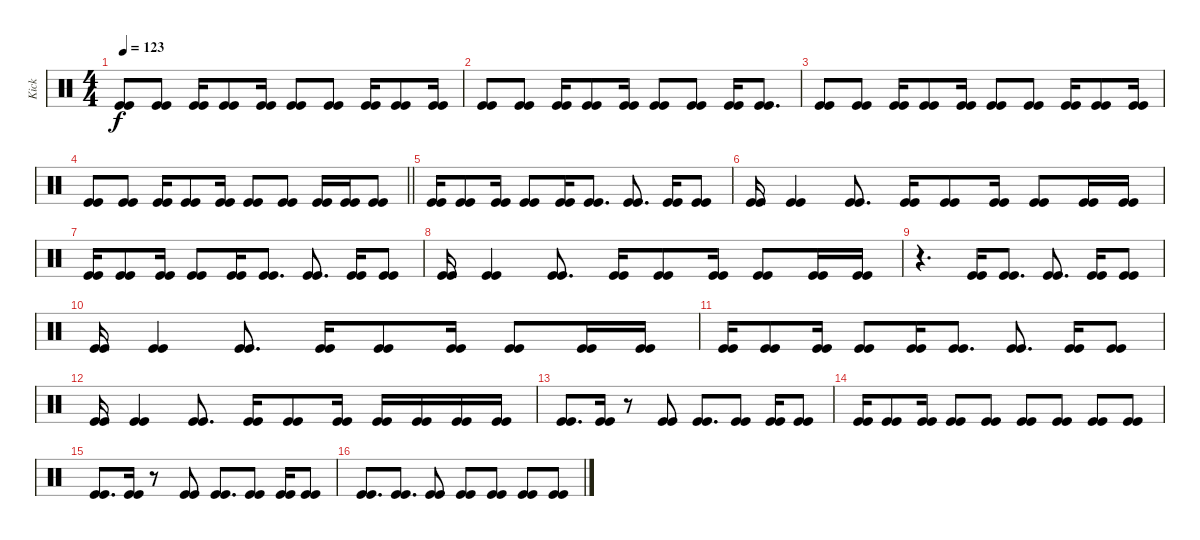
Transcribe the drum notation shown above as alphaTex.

\track ("Kick" "Kick") {instrument percussion}
\staff {score}
\articulation defaults
\ts (4 4)
\tempo 123
\clef neutral
\ks c
("Kick (hit)" "Kick (hit)").8{dy f} ("Kick (hit)" "Kick (hit)").8 ("Kick (hit)" "Kick (hit)").16 ("Kick (hit)" "Kick (hit)").8 ("Kick (hit)" "Kick (hit)").16 ("Kick (hit)" "Kick (hit)").8 ("Kick (hit)" "Kick (hit)").8 ("Kick (hit)" "Kick (hit)").16 ("Kick (hit)" "Kick (hit)").8 ("Kick (hit)" "Kick (hit)").16 |
("Kick (hit)" "Kick (hit)").8 ("Kick (hit)" "Kick (hit)").8 ("Kick (hit)" "Kick (hit)").16 ("Kick (hit)" "Kick (hit)").8 ("Kick (hit)" "Kick (hit)").16 ("Kick (hit)" "Kick (hit)").8 ("Kick (hit)" "Kick (hit)").8 ("Kick (hit)" "Kick (hit)").16 ("Kick (hit)" "Kick (hit)").8{d} |
("Kick (hit)" "Kick (hit)").8 ("Kick (hit)" "Kick (hit)").8 ("Kick (hit)" "Kick (hit)").16 ("Kick (hit)" "Kick (hit)").8 ("Kick (hit)" "Kick (hit)").16 ("Kick (hit)" "Kick (hit)").8 ("Kick (hit)" "Kick (hit)").8 ("Kick (hit)" "Kick (hit)").16 ("Kick (hit)" "Kick (hit)").8 ("Kick (hit)" "Kick (hit)").16 |
\barLineRight lightlight
("Kick (hit)" "Kick (hit)").8 ("Kick (hit)" "Kick (hit)").8 ("Kick (hit)" "Kick (hit)").16 ("Kick (hit)" "Kick (hit)").8 ("Kick (hit)" "Kick (hit)").16 ("Kick (hit)" "Kick (hit)").8 ("Kick (hit)" "Kick (hit)").8 ("Kick (hit)" "Kick (hit)").16 ("Kick (hit)" "Kick (hit)").16 ("Kick (hit)" "Kick (hit)").8 |
("Kick (hit)" "Kick (hit)").16 ("Kick (hit)" "Kick (hit)").8 ("Kick (hit)" "Kick (hit)").16 ("Kick (hit)" "Kick (hit)").8 ("Kick (hit)" "Kick (hit)").16 ("Kick (hit)" "Kick (hit)").8{d} ("Kick (hit)" "Kick (hit)").8{d} ("Kick (hit)" "Kick (hit)").16 ("Kick (hit)" "Kick (hit)").8 |
("Kick (hit)" "Kick (hit)").16 ("Kick (hit)" "Kick (hit)").4 ("Kick (hit)" "Kick (hit)").8{d} ("Kick (hit)" "Kick (hit)").16 ("Kick (hit)" "Kick (hit)").8 ("Kick (hit)" "Kick (hit)").16 ("Kick (hit)" "Kick (hit)").8 ("Kick (hit)" "Kick (hit)").16 ("Kick (hit)" "Kick (hit)").16 |
("Kick (hit)" "Kick (hit)").16 ("Kick (hit)" "Kick (hit)").8 ("Kick (hit)" "Kick (hit)").16 ("Kick (hit)" "Kick (hit)").8 ("Kick (hit)" "Kick (hit)").16 ("Kick (hit)" "Kick (hit)").8{d} ("Kick (hit)" "Kick (hit)").8{d} ("Kick (hit)" "Kick (hit)").16 ("Kick (hit)" "Kick (hit)").8 |
("Kick (hit)" "Kick (hit)").16 ("Kick (hit)" "Kick (hit)").4 ("Kick (hit)" "Kick (hit)").8{d} ("Kick (hit)" "Kick (hit)").16 ("Kick (hit)" "Kick (hit)").8 ("Kick (hit)" "Kick (hit)").16 ("Kick (hit)" "Kick (hit)").8 ("Kick (hit)" "Kick (hit)").16 ("Kick (hit)" "Kick (hit)").16 |
r.4{d} ("Kick (hit)" "Kick (hit)").16 ("Kick (hit)" "Kick (hit)").8{d} ("Kick (hit)" "Kick (hit)").8{d} ("Kick (hit)" "Kick (hit)").16 ("Kick (hit)" "Kick (hit)").8 |
("Kick (hit)" "Kick (hit)").16 ("Kick (hit)" "Kick (hit)").4 ("Kick (hit)" "Kick (hit)").8{d} ("Kick (hit)" "Kick (hit)").16 ("Kick (hit)" "Kick (hit)").8 ("Kick (hit)" "Kick (hit)").16 ("Kick (hit)" "Kick (hit)").8 ("Kick (hit)" "Kick (hit)").16 ("Kick (hit)" "Kick (hit)").16 |
("Kick (hit)" "Kick (hit)").16 ("Kick (hit)" "Kick (hit)").8 ("Kick (hit)" "Kick (hit)").16 ("Kick (hit)" "Kick (hit)").8 ("Kick (hit)" "Kick (hit)").16 ("Kick (hit)" "Kick (hit)").8{d} ("Kick (hit)" "Kick (hit)").8{d} ("Kick (hit)" "Kick (hit)").16 ("Kick (hit)" "Kick (hit)").8 |
("Kick (hit)" "Kick (hit)").16 ("Kick (hit)" "Kick (hit)").4 ("Kick (hit)" "Kick (hit)").8{d} ("Kick (hit)" "Kick (hit)").16 ("Kick (hit)" "Kick (hit)").8 ("Kick (hit)" "Kick (hit)").16 ("Kick (hit)" "Kick (hit)").16 ("Kick (hit)" "Kick (hit)").16 ("Kick (hit)" "Kick (hit)").16 ("Kick (hit)" "Kick (hit)").16 |
("Kick (hit)" "Kick (hit)").8{d} ("Kick (hit)" "Kick (hit)").16 r.8 ("Kick (hit)" "Kick (hit)").8 ("Kick (hit)" "Kick (hit)").8{d} ("Kick (hit)" "Kick (hit)").8 ("Kick (hit)" "Kick (hit)").16 ("Kick (hit)" "Kick (hit)").8 |
("Kick (hit)" "Kick (hit)").16 ("Kick (hit)" "Kick (hit)").8 ("Kick (hit)" "Kick (hit)").16 ("Kick (hit)" "Kick (hit)").8 ("Kick (hit)" "Kick (hit)").8 ("Kick (hit)" "Kick (hit)").8 ("Kick (hit)" "Kick (hit)").8 ("Kick (hit)" "Kick (hit)").8 ("Kick (hit)" "Kick (hit)").8 |
("Kick (hit)" "Kick (hit)").8{d} ("Kick (hit)" "Kick (hit)").16 r.8 ("Kick (hit)" "Kick (hit)").8 ("Kick (hit)" "Kick (hit)").8{d} ("Kick (hit)" "Kick (hit)").8 ("Kick (hit)" "Kick (hit)").16 ("Kick (hit)" "Kick (hit)").8 |
("Kick (hit)" "Kick (hit)").8{d} ("Kick (hit)" "Kick (hit)").8{d} ("Kick (hit)" "Kick (hit)").8 ("Kick (hit)" "Kick (hit)").8 ("Kick (hit)" "Kick (hit)").8 ("Kick (hit)" "Kick (hit)").8 ("Kick (hit)" "Kick (hit)").8
